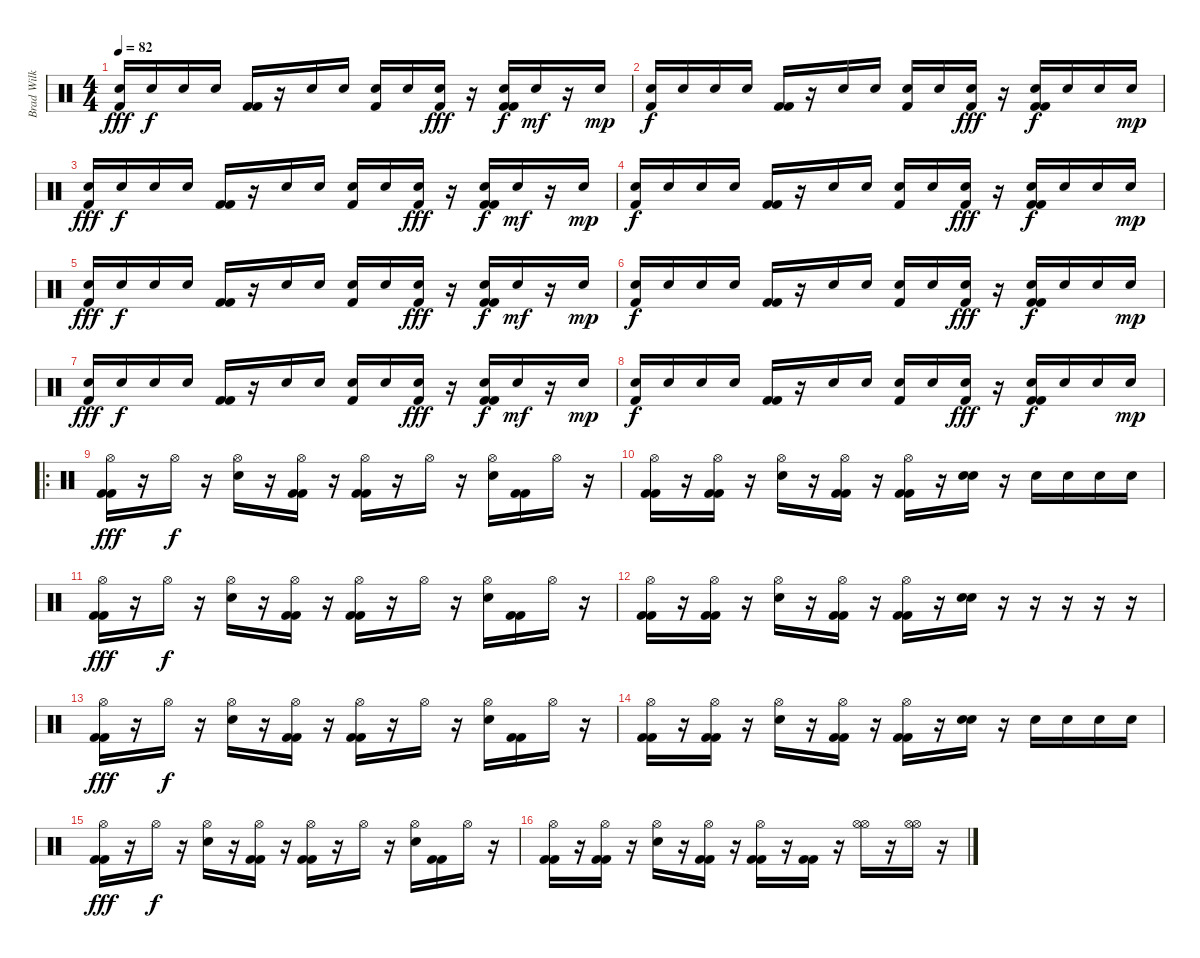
\track ("Brad Wilk" "Brad Wilk") {instrument percussion}
\staff {score}
\articulation defaults
\ts (4 4)
\tempo 82
\clef neutral
\ks c
("Electric Snare (hit)" "Kick (hit) 2").16{dy fff} "Electric Snare (hit)".16{dy f} "Electric Snare (hit)".16 "Electric Snare (hit)".16 ("Kick (hit) 2" "Kick (hit) 2").16 r.16 "Electric Snare (hit)".16 "Electric Snare (hit)".16 ("Electric Snare (hit)" "Kick (hit) 2").16 "Electric Snare (hit)".16 ("Electric Snare (hit)" "Kick (hit) 2").16{dy fff} r.16 ("Electric Snare (hit)" "Kick (hit) 2" "Kick (hit) 2").16{dy f} "Snare (hit) 2".16{dy mf} r.16 "Electric Snare (hit)".16{dy mp} |
("Electric Snare (hit)" "Kick (hit) 2").16{dy f} "Electric Snare (hit)".16 "Electric Snare (hit)".16 "Electric Snare (hit)".16 ("Kick (hit) 2" "Kick (hit) 2").16 r.16 "Electric Snare (hit)".16 "Electric Snare (hit)".16 ("Electric Snare (hit)" "Kick (hit) 2").16 "Electric Snare (hit)".16 ("Electric Snare (hit)" "Kick (hit) 2").16{dy fff} r.16 ("Electric Snare (hit)" "Kick (hit) 2" "Kick (hit) 2").16{dy f} "Electric Snare (hit)".16 "Electric Snare (hit)".16 "Electric Snare (hit)".16{dy mp} |
("Electric Snare (hit)" "Kick (hit) 2").16{dy fff} "Electric Snare (hit)".16{dy f} "Electric Snare (hit)".16 "Electric Snare (hit)".16 ("Kick (hit) 2" "Kick (hit) 2").16 r.16 "Electric Snare (hit)".16 "Electric Snare (hit)".16 ("Electric Snare (hit)" "Kick (hit) 2").16 "Electric Snare (hit)".16 ("Electric Snare (hit)" "Kick (hit) 2").16{dy fff} r.16 ("Electric Snare (hit)" "Kick (hit) 2" "Kick (hit) 2").16{dy f} "Snare (hit) 2".16{dy mf} r.16 "Electric Snare (hit)".16{dy mp} |
("Electric Snare (hit)" "Kick (hit) 2").16{dy f} "Electric Snare (hit)".16 "Electric Snare (hit)".16 "Electric Snare (hit)".16 ("Kick (hit) 2" "Kick (hit) 2").16 r.16 "Electric Snare (hit)".16 "Electric Snare (hit)".16 ("Electric Snare (hit)" "Kick (hit) 2").16 "Electric Snare (hit)".16 ("Electric Snare (hit)" "Kick (hit) 2").16{dy fff} r.16 ("Electric Snare (hit)" "Kick (hit) 2" "Kick (hit) 2").16{dy f} "Electric Snare (hit)".16 "Electric Snare (hit)".16 "Electric Snare (hit)".16{dy mp} |
("Electric Snare (hit)" "Kick (hit) 2").16{dy fff} "Electric Snare (hit)".16{dy f} "Electric Snare (hit)".16 "Electric Snare (hit)".16 ("Kick (hit) 2" "Kick (hit) 2").16 r.16 "Electric Snare (hit)".16 "Electric Snare (hit)".16 ("Electric Snare (hit)" "Kick (hit) 2").16 "Electric Snare (hit)".16 ("Electric Snare (hit)" "Kick (hit) 2").16{dy fff} r.16 ("Electric Snare (hit)" "Kick (hit) 2" "Kick (hit) 2").16{dy f} "Snare (hit) 2".16{dy mf} r.16 "Electric Snare (hit)".16{dy mp} |
("Electric Snare (hit)" "Kick (hit) 2").16{dy f} "Electric Snare (hit)".16 "Electric Snare (hit)".16 "Electric Snare (hit)".16 ("Kick (hit) 2" "Kick (hit) 2").16 r.16 "Electric Snare (hit)".16 "Electric Snare (hit)".16 ("Electric Snare (hit)" "Kick (hit) 2").16 "Electric Snare (hit)".16 ("Electric Snare (hit)" "Kick (hit) 2").16{dy fff} r.16 ("Electric Snare (hit)" "Kick (hit) 2" "Kick (hit) 2").16{dy f} "Electric Snare (hit)".16 "Electric Snare (hit)".16 "Electric Snare (hit)".16{dy mp} |
("Electric Snare (hit)" "Kick (hit) 2").16{dy fff} "Electric Snare (hit)".16{dy f} "Electric Snare (hit)".16 "Electric Snare (hit)".16 ("Kick (hit) 2" "Kick (hit) 2").16 r.16 "Electric Snare (hit)".16 "Electric Snare (hit)".16 ("Electric Snare (hit)" "Kick (hit) 2").16 "Electric Snare (hit)".16 ("Electric Snare (hit)" "Kick (hit) 2").16{dy fff} r.16 ("Electric Snare (hit)" "Kick (hit) 2" "Kick (hit) 2").16{dy f} "Snare (hit) 2".16{dy mf} r.16 "Electric Snare (hit)".16{dy mp} |
("Electric Snare (hit)" "Kick (hit) 2").16{dy f} "Electric Snare (hit)".16 "Electric Snare (hit)".16 "Electric Snare (hit)".16 ("Kick (hit) 2" "Kick (hit) 2").16 r.16 "Electric Snare (hit)".16 "Electric Snare (hit)".16 ("Electric Snare (hit)" "Kick (hit) 2").16 "Electric Snare (hit)".16 ("Electric Snare (hit)" "Kick (hit) 2").16{dy fff} r.16 ("Electric Snare (hit)" "Kick (hit) 2" "Kick (hit) 2").16{dy f} "Electric Snare (hit)".16 "Electric Snare (hit)".16 "Electric Snare (hit)".16{dy mp} |
\ro
("Hi-Hat (open)" "Kick (hit) 2" "Kick (hit) 2").16{dy fff} r.16 "Hi-Hat (open)".16{dy f} r.16 ("Hi-Hat (open)" "Snare (hit) 2").16 r.16 ("Hi-Hat (open)" "Kick (hit) 2" "Kick (hit) 2").16 r.16 ("Hi-Hat (open)" "Kick (hit) 2" "Kick (hit) 2").16 r.16 "Hi-Hat (open)".16 r.16 ("Hi-Hat (open)" "Snare (hit) 2").16 ("Kick (hit) 2" "Kick (hit) 2").16 "Hi-Hat (open)".16 r.16 |
("Hi-Hat (open)" "Kick (hit) 2" "Kick (hit) 2").16 r.16 ("Hi-Hat (open)" "Kick (hit) 2" "Kick (hit) 2").16 r.16 ("Hi-Hat (open)" "Snare (hit) 2").16 r.16 ("Hi-Hat (open)" "Kick (hit) 2" "Kick (hit) 2").16 r.16 ("Hi-Hat (open)" "Kick (hit) 2" "Kick (hit) 2").16 r.16 ("Electric Snare (hit)" "Electric Snare (hit)").16{bd 240} r.16 "Electric Snare (hit)".16 "Electric Snare (hit)".16 "Electric Snare (hit)".16 "Electric Snare (hit)".16 |
("Hi-Hat (open)" "Kick (hit) 2" "Kick (hit) 2").16{dy fff} r.16 "Hi-Hat (open)".16{dy f} r.16 ("Hi-Hat (open)" "Snare (hit) 2").16 r.16 ("Hi-Hat (open)" "Kick (hit) 2" "Kick (hit) 2").16 r.16 ("Hi-Hat (open)" "Kick (hit) 2" "Kick (hit) 2").16 r.16 "Hi-Hat (open)".16 r.16 ("Hi-Hat (open)" "Snare (hit) 2").16 ("Kick (hit) 2" "Kick (hit) 2").16 "Hi-Hat (open)".16 r.16 |
("Hi-Hat (open)" "Kick (hit) 2" "Kick (hit) 2").16 r.16 ("Hi-Hat (open)" "Kick (hit) 2" "Kick (hit) 2").16 r.16 ("Hi-Hat (open)" "Snare (hit) 2").16 r.16 ("Hi-Hat (open)" "Kick (hit) 2" "Kick (hit) 2").16 r.16 ("Hi-Hat (open)" "Kick (hit) 2" "Kick (hit) 2").16 r.16 ("Electric Snare (hit)" "Electric Snare (hit)").16{bd 240} r.16 r.16 r.16 r.16 r.16 |
("Hi-Hat (open)" "Kick (hit) 2" "Kick (hit) 2").16{dy fff} r.16 "Hi-Hat (open)".16{dy f} r.16 ("Hi-Hat (open)" "Snare (hit) 2").16 r.16 ("Hi-Hat (open)" "Kick (hit) 2" "Kick (hit) 2").16 r.16 ("Hi-Hat (open)" "Kick (hit) 2" "Kick (hit) 2").16 r.16 "Hi-Hat (open)".16 r.16 ("Hi-Hat (open)" "Snare (hit) 2").16 ("Kick (hit) 2" "Kick (hit) 2").16 "Hi-Hat (open)".16 r.16 |
("Hi-Hat (open)" "Kick (hit) 2" "Kick (hit) 2").16 r.16 ("Hi-Hat (open)" "Kick (hit) 2" "Kick (hit) 2").16 r.16 ("Hi-Hat (open)" "Snare (hit) 2").16 r.16 ("Hi-Hat (open)" "Kick (hit) 2" "Kick (hit) 2").16 r.16 ("Hi-Hat (open)" "Kick (hit) 2" "Kick (hit) 2").16 r.16 ("Electric Snare (hit)" "Electric Snare (hit)").16{bd 240} r.16 "Electric Snare (hit)".16 "Electric Snare (hit)".16 "Electric Snare (hit)".16 "Electric Snare (hit)".16 |
("Hi-Hat (open)" "Kick (hit) 2" "Kick (hit) 2").16{dy fff} r.16 "Hi-Hat (open)".16{dy f} r.16 ("Hi-Hat (open)" "Snare (hit) 2").16 r.16 ("Hi-Hat (open)" "Kick (hit) 2" "Kick (hit) 2").16 r.16 ("Hi-Hat (open)" "Kick (hit) 2" "Kick (hit) 2").16 r.16 "Hi-Hat (open)".16 r.16 ("Hi-Hat (open)" "Snare (hit) 2").16 ("Kick (hit) 2" "Kick (hit) 2").16 "Hi-Hat (open)".16 r.16 |
("Hi-Hat (open)" "Kick (hit) 2" "Kick (hit) 2").16 r.16 ("Hi-Hat (open)" "Kick (hit) 2" "Kick (hit) 2").16 r.16 ("Hi-Hat (open)" "Snare (hit) 2").16 r.16 ("Hi-Hat (open)" "Kick (hit) 2" "Kick (hit) 2").16 r.16 ("Hi-Hat (open)" "Kick (hit) 2" "Kick (hit) 2").16 r.16 ("Kick (hit) 2" "Kick (hit) 2").16 r.16 ("Hi-Hat (open)" "Hi-Hat (open)").16 r.16 ("Hi-Hat (open)" "Hi-Hat (open)").16 r.16
